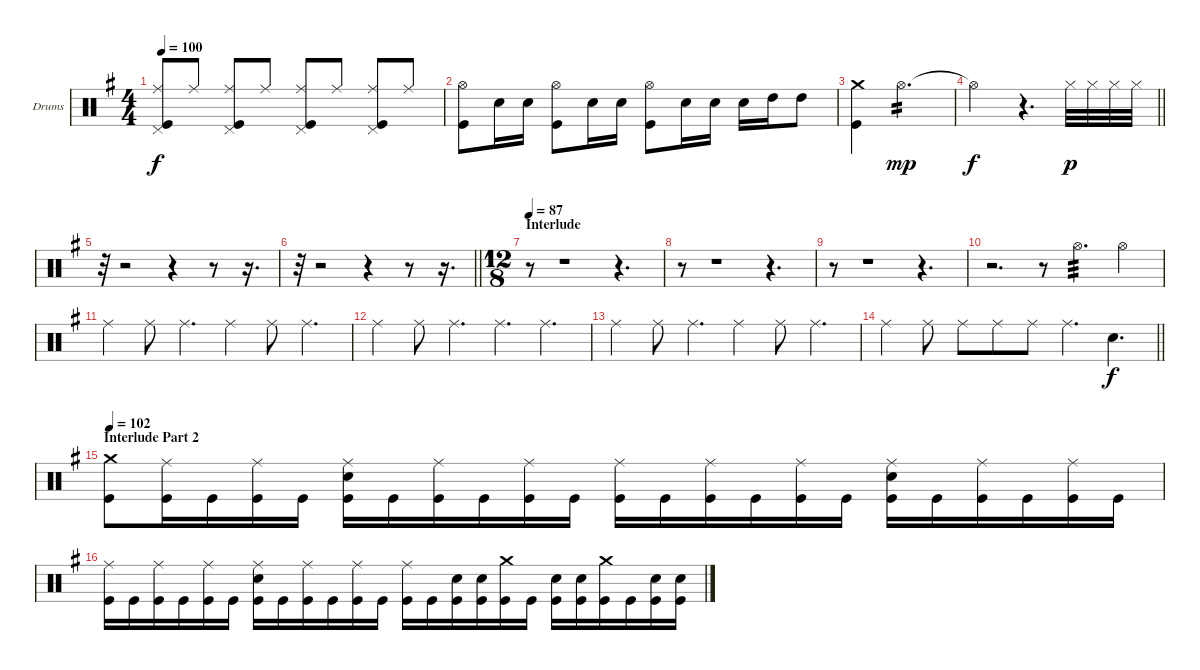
\bracketExtendMode groupsimilarinstruments
\firstSystemTrackNameOrientation horizontal
\otherSystemsTrackNameOrientation horizontal
\track ("Барабаны" "Drums") {instrument percussion}
\staff {score}
\articulation defaults
\ts (4 4)
\tempo 100
\clef neutral
\ks eminor
("Kick (hit)" "Ride (middle)" "Pedal Hi-Hat (hit)").8{dy f} "Ride (middle)".8 ("Ride (middle)" "Pedal Hi-Hat (hit)" "Kick (hit)").8 "Ride (middle)".8 ("Ride (middle)" "Pedal Hi-Hat (hit)" "Kick (hit)").8 "Ride (middle)".8 ("Ride (middle)" "Pedal Hi-Hat (hit)" "Kick (hit)").8 "Ride (middle)".8 |
("Kick (hit)" "Hi-Hat (open)").8 "Snare (hit) 2".16 "Snare (hit) 2".16 ("Kick (hit)" "Hi-Hat (open)").8 "Snare (hit) 2".16 "Snare (hit) 2".16 ("Kick (hit)" "Hi-Hat (open)").8 "Snare (hit) 2".16 "Snare (hit) 2".16 "Snare (hit) 2".16 "High Tom (hit)".16 "High Tom (hit)".8 |
("Kick (hit)" "Crash medium (hit)").4 "Hi-Hat (open)".2{d tp 2 dy mp} |
\barLineRight lightlight "Hi-Hat (open)"{t}.2{dy f}
r.4{d} "Hi-Hat (closed)".32{dy p} "Hi-Hat (closed)".32 "Hi-Hat (closed)".32 "Hi-Hat (closed)".32 |
r.32 r.2 r.4 r.8 r.16{d} |
\barLineRight lightlight
r.32 r.2 r.4 r.8 r.16{d} |
\ts (12 8)
\beaming (8 3 3 3 3)
\section ("" "Interlude")
\tempo 87
r.8 r.1 r.4{d} |
r.8 r.1 r.4{d} |
r.8 r.1 r.4{d} |
r.2{d} r.8 "Hi-Hat (open)".4{d tp 3} "Hi-Hat (open)".4 |
"Ride (middle)".4 "Ride (middle)".8 "Ride (middle)".4{d} "Ride (middle)".4 "Ride (middle)".8 "Ride (middle)".4{d} |
"Ride (middle)".4 "Ride (middle)".8 "Ride (middle)".4{d} "Ride (middle)".4{d} "Ride (middle)".4{d} |
"Ride (middle)".4 "Ride (middle)".8 "Ride (middle)".4{d} "Ride (middle)".4 "Ride (middle)".8 "Ride (middle)".4{d} |
\barLineRight lightlight "Ride (middle)".4 "Ride (middle)".8 "Ride (middle)".8 "Ride (middle)".8 "Ride (middle)".8 "Ride (middle)".4{d} "Snare (hit) 2".4{d dy f}
|
\section ("" "Interlude Part 2")
\tempo 102
("Kick (hit)" "Crash medium (hit)").8 ("Kick (hit)" "Ride (middle)").16 "Kick (hit)".16 ("Kick (hit)" "Ride (middle)").16 "Kick (hit)".16 ("Kick (hit)" "Snare (hit) 2" "Ride (middle)").16 "Kick (hit)".16 ("Kick (hit)" "Ride (middle)").16 "Kick (hit)".16 ("Kick (hit)" "Ride (middle)").16 "Kick (hit)".16 ("Kick (hit)" "Ride (middle)").16 "Kick (hit)".16 ("Kick (hit)" "Ride (middle)").16 "Kick (hit)".16 ("Kick (hit)" "Ride (middle)").16 "Kick (hit)".16 ("Kick (hit)" "Snare (hit) 2" "Ride (middle)").16 "Kick (hit)".16 ("Kick (hit)" "Ride (middle)").16 "Kick (hit)".16 ("Kick (hit)" "Ride (middle)").16 "Kick (hit)".16 |
("Kick (hit)" "Ride (middle)").16 "Kick (hit)".16 ("Kick (hit)" "Ride (middle)").16 "Kick (hit)".16 ("Kick (hit)" "Ride (middle)").16 "Kick (hit)".16 ("Kick (hit)" "Snare (hit) 2" "Ride (middle)").16 "Kick (hit)".16 ("Kick (hit)" "Ride (middle)").16 "Kick (hit)".16 ("Kick (hit)" "Ride (middle)").16 "Kick (hit)".16 ("Kick (hit)" "Ride (middle)").16 "Kick (hit)".16 ("Kick (hit)" "Snare (hit) 2").16 ("Kick (hit)" "Snare (hit) 2").16 ("Kick (hit)" "Crash medium (hit)").16 "Kick (hit)".16 ("Kick (hit)" "Snare (hit) 2").16 ("Kick (hit)" "Snare (hit) 2").16 ("Kick (hit)" "Crash medium (hit)").16 "Kick (hit)".16 ("Kick (hit)" "Snare (hit) 2").16 ("Kick (hit)" "Snare (hit) 2").16
